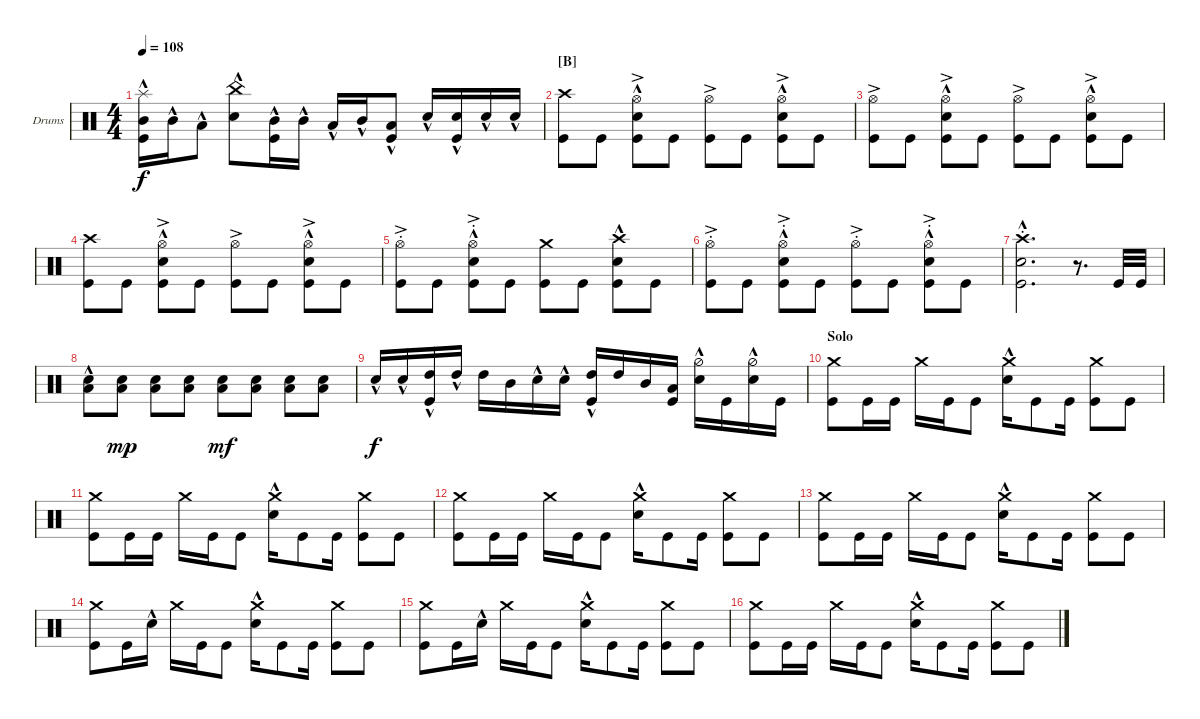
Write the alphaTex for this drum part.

\defaultSystemsLayout 4
\bracketExtendMode groupsimilarinstruments
\firstSystemTrackNameOrientation horizontal
\otherSystemsTrackNameOrientation horizontal
\track ("Drumkit " "Drums") {instrument percussion}
\staff {score}
\articulation defaults
\ts (4 4)
\tempo 108
\clef neutral
\ks c
("Kick (hit)" "Mid Tom (hit)"{hac} "Splash (hit)").16{dy f} "Mid Tom (hit)"{hac}.16 "Low Tom (hit)"{hac}.8 ("Snare (hit) 2"{hac} "China (hit)").8 ("Mid Tom (hit)"{hac} "Kick (hit)").16 "Mid Tom (hit)"{hac}.16 "Low Tom (hit)"{hac}.16 "Mid Tom (hit)"{hac}.16 ("Low Tom (hit)"{hac} "Kick (hit)").8 "Snare (hit) 2"{hac}.16 ("Snare (hit) 2"{hac} "Kick (hit)"{hac}).16 "Snare (hit) 2"{hac}.16 "Snare (hit) 2"{hac}.16 |
\section ("B" "")
("Kick (hit)" "Crash high (hit)").8 "Kick (hit)".8 ("Kick (hit)" "Snare (hit) 2"{hac} "Hi-Hat (open)"{ac}).8 "Kick (hit)".8 ("Kick (hit)" "Hi-Hat (open)"{ac}).8 "Kick (hit)".8 ("Kick (hit)" "Snare (hit) 2"{hac} "Hi-Hat (open)"{ac}).8 "Kick (hit)".8 |
("Kick (hit)" "Hi-Hat (open)"{ac}).8 "Kick (hit)".8 ("Kick (hit)" "Snare (hit) 2"{hac} "Hi-Hat (open)"{ac}).8 "Kick (hit)".8 ("Kick (hit)" "Hi-Hat (open)"{ac}).8 "Kick (hit)".8 ("Kick (hit)" "Snare (hit) 2"{hac} "Hi-Hat (open)"{ac}).8 "Kick (hit)".8 |
("Kick (hit)" "Crash high (hit)").8 "Kick (hit)".8 ("Kick (hit)" "Snare (hit) 2"{hac} "Hi-Hat (open)"{ac}).8 "Kick (hit)".8 ("Kick (hit)" "Hi-Hat (open)"{ac}).8 "Kick (hit)".8 ("Kick (hit)" "Snare (hit) 2"{hac} "Hi-Hat (open)"{ac}).8 "Kick (hit)".8 |
("Kick (hit)" "Hi-Hat (open)"{ac st}).8 "Kick (hit)".8 ("Kick (hit)" "Snare (hit) 2"{hac} "Hi-Hat (open)"{ac st}).8 "Kick (hit)".8 ("Kick (hit)" "Crash medium (hit)").8 "Kick (hit)".8 ("Kick (hit)" "Snare (hit) 2"{hac} "Crash high (hit)").8 "Kick (hit)".8 |
("Kick (hit)" "Hi-Hat (open)"{ac st}).8 "Kick (hit)".8 ("Kick (hit)" "Snare (hit) 2"{hac} "Hi-Hat (open)"{ac st}).8 "Kick (hit)".8 ("Kick (hit)" "Hi-Hat (open)"{ac st}).8 "Kick (hit)".8 ("Kick (hit)" "Snare (hit) 2"{hac} "Hi-Hat (open)"{ac st}).8 "Kick (hit)".8 |
("Crash high (hit)"{st} "Snare (hit) 2"{hac} "Kick (hit)").2{d} r.8{d} "Kick (hit)".32 "Kick (hit)".32 |
("Snare (hit) 2"{hac} "Low Tom (hit)"{hac}).8 ("Snare (hit) 2" "Low Tom (hit)").8{dy mp} ("Snare (hit) 2" "Low Tom (hit)").8 ("Snare (hit) 2" "Low Tom (hit)").8 ("Snare (hit) 2" "Low Tom (hit)").8{dy mf} ("Snare (hit) 2" "Low Tom (hit)").8 ("Snare (hit) 2" "Low Tom (hit)").8 ("Snare (hit) 2" "Low Tom (hit)").8 |
"Snare (hit) 2"{hac}.16{dy f} "Snare (hit) 2"{hac}.16 ("Kick (hit)" "High Tom (hit)"{hac}).16 "High Tom (hit)"{hac}.16 "High Tom (hit)".16 "Mid Tom (hit)".16 "Snare (hit) 2"{hac}.16 "Snare (hit) 2"{hac}.16 ("Kick (hit)" "High Tom (hit)"{hac}).16 "High Tom (hit)".16 "Mid Tom (hit)".16 ("Kick (hit)" "Low Tom (hit)").16 ("Snare (hit) 2"{hac} "Hi-Hat (half)"{hac}).16 "Kick (hit)".16 ("Snare (hit) 2"{hac} "Hi-Hat (half)"{hac}).16 "Kick (hit)".16 |
\section ("" "Solo")
("Kick (hit)" "Crash medium (hit)").8 "Kick (hit)".16 "Kick (hit)".16 "Crash medium (hit)".16 "Kick (hit)".16 "Kick (hit)".8 ("Snare (hit) 2"{hac} "Crash medium (hit)").16 "Kick (hit)".8 "Kick (hit)".16 ("Kick (hit)" "Crash medium (hit)").8 "Kick (hit)".8 |
("Kick (hit)" "Crash medium (hit)").8 "Kick (hit)".16 "Kick (hit)".16 "Crash medium (hit)".16 "Kick (hit)".16 "Kick (hit)".8 ("Snare (hit) 2"{hac} "Crash medium (hit)").16 "Kick (hit)".8 "Kick (hit)".16 ("Kick (hit)" "Crash medium (hit)").8 "Kick (hit)".8 |
("Kick (hit)" "Crash medium (hit)").8 "Kick (hit)".16 "Kick (hit)".16 "Crash medium (hit)".16 "Kick (hit)".16 "Kick (hit)".8 ("Snare (hit) 2"{hac} "Crash medium (hit)").16 "Kick (hit)".8 "Kick (hit)".16 ("Kick (hit)" "Crash medium (hit)").8 "Kick (hit)".8 |
("Kick (hit)" "Crash medium (hit)").8 "Kick (hit)".16 "Kick (hit)".16 "Crash medium (hit)".16 "Kick (hit)".16 "Kick (hit)".8 ("Snare (hit) 2"{hac} "Crash medium (hit)").16 "Kick (hit)".8 "Kick (hit)".16 ("Kick (hit)" "Crash medium (hit)").8 "Kick (hit)".8 |
("Kick (hit)" "Crash medium (hit)").8 "Kick (hit)".16 "Snare (hit) 2"{hac}.16 "Crash medium (hit)".16 "Kick (hit)".16 "Kick (hit)".8 ("Snare (hit) 2"{hac} "Crash medium (hit)").16 "Kick (hit)".8 "Kick (hit)".16 ("Kick (hit)" "Crash medium (hit)").8 "Kick (hit)".8 |
("Kick (hit)" "Crash medium (hit)").8 "Kick (hit)".16 "Snare (hit) 2"{hac}.16 "Crash medium (hit)".16 "Kick (hit)".16 "Kick (hit)".8 ("Snare (hit) 2"{hac} "Crash medium (hit)").16 "Kick (hit)".8 "Kick (hit)".16 ("Kick (hit)" "Crash medium (hit)").8 "Kick (hit)".8 |
("Kick (hit)" "Crash medium (hit)").8 "Kick (hit)".16 "Kick (hit)".16 "Crash medium (hit)".16 "Kick (hit)".16 "Kick (hit)".8 ("Snare (hit) 2"{hac} "Crash medium (hit)").16 "Kick (hit)".8 "Kick (hit)".16 ("Kick (hit)" "Crash medium (hit)").8 "Kick (hit)".8
